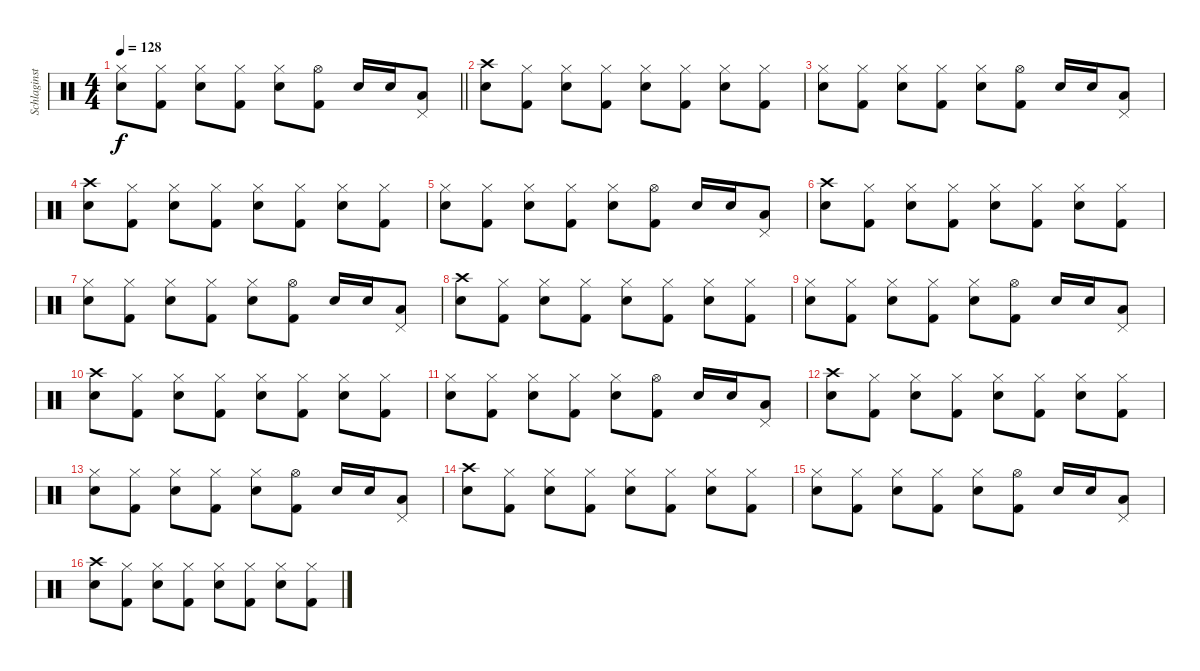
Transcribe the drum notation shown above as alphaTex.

\track ("Schlaginstrumente - Auswahl" "Schlaginst") {instrument percussion}
\staff {score}
\articulation defaults
\ts (4 4)
\tempo 128
\clef neutral
\barLineRight lightlight
\ks c
("Hi-Hat (closed)" "Snare (hit) 2").8{dy f} ("Hi-Hat (closed)" "Kick (hit) 2").8 ("Hi-Hat (closed)" "Snare (hit) 2").8 ("Hi-Hat (closed)" "Kick (hit) 2").8 ("Hi-Hat (closed)" "Snare (hit) 2").8 ("Hi-Hat (open)" "Kick (hit) 2").8 "Snare (hit) 2".16 "Snare (hit) 2".16 ("Pedal Hi-Hat (hit)" "Low Tom (hit)").8 |
("Crash high (hit)" "Snare (hit) 2").8 ("Hi-Hat (closed)" "Kick (hit) 2").8 ("Hi-Hat (closed)" "Snare (hit) 2").8 ("Hi-Hat (closed)" "Kick (hit) 2").8 ("Hi-Hat (closed)" "Snare (hit) 2").8 ("Hi-Hat (closed)" "Kick (hit) 2").8 ("Hi-Hat (closed)" "Snare (hit) 2").8 ("Hi-Hat (closed)" "Kick (hit) 2").8 |
("Hi-Hat (closed)" "Snare (hit) 2").8 ("Hi-Hat (closed)" "Kick (hit) 2").8 ("Hi-Hat (closed)" "Snare (hit) 2").8 ("Hi-Hat (closed)" "Kick (hit) 2").8 ("Hi-Hat (closed)" "Snare (hit) 2").8 ("Hi-Hat (open)" "Kick (hit) 2").8 "Snare (hit) 2".16 "Snare (hit) 2".16 ("Pedal Hi-Hat (hit)" "Low Tom (hit)").8 |
("Crash high (hit)" "Snare (hit) 2").8 ("Hi-Hat (closed)" "Kick (hit) 2").8 ("Hi-Hat (closed)" "Snare (hit) 2").8 ("Hi-Hat (closed)" "Kick (hit) 2").8 ("Hi-Hat (closed)" "Snare (hit) 2").8 ("Hi-Hat (closed)" "Kick (hit) 2").8 ("Hi-Hat (closed)" "Snare (hit) 2").8 ("Hi-Hat (closed)" "Kick (hit) 2").8 |
("Hi-Hat (closed)" "Snare (hit) 2").8 ("Hi-Hat (closed)" "Kick (hit) 2").8 ("Hi-Hat (closed)" "Snare (hit) 2").8 ("Hi-Hat (closed)" "Kick (hit) 2").8 ("Hi-Hat (closed)" "Snare (hit) 2").8 ("Hi-Hat (open)" "Kick (hit) 2").8 "Snare (hit) 2".16 "Snare (hit) 2".16 ("Pedal Hi-Hat (hit)" "Low Tom (hit)").8 |
("Crash high (hit)" "Snare (hit) 2").8 ("Hi-Hat (closed)" "Kick (hit) 2").8 ("Hi-Hat (closed)" "Snare (hit) 2").8 ("Hi-Hat (closed)" "Kick (hit) 2").8 ("Hi-Hat (closed)" "Snare (hit) 2").8 ("Hi-Hat (closed)" "Kick (hit) 2").8 ("Hi-Hat (closed)" "Snare (hit) 2").8 ("Hi-Hat (closed)" "Kick (hit) 2").8 |
("Hi-Hat (closed)" "Snare (hit) 2").8 ("Hi-Hat (closed)" "Kick (hit) 2").8 ("Hi-Hat (closed)" "Snare (hit) 2").8 ("Hi-Hat (closed)" "Kick (hit) 2").8 ("Hi-Hat (closed)" "Snare (hit) 2").8 ("Hi-Hat (open)" "Kick (hit) 2").8 "Snare (hit) 2".16 "Snare (hit) 2".16 ("Pedal Hi-Hat (hit)" "Low Tom (hit)").8 |
("Crash high (hit)" "Snare (hit) 2").8 ("Hi-Hat (closed)" "Kick (hit) 2").8 ("Hi-Hat (closed)" "Snare (hit) 2").8 ("Hi-Hat (closed)" "Kick (hit) 2").8 ("Hi-Hat (closed)" "Snare (hit) 2").8 ("Hi-Hat (closed)" "Kick (hit) 2").8 ("Hi-Hat (closed)" "Snare (hit) 2").8 ("Hi-Hat (closed)" "Kick (hit) 2").8 |
("Hi-Hat (closed)" "Snare (hit) 2").8 ("Hi-Hat (closed)" "Kick (hit) 2").8 ("Hi-Hat (closed)" "Snare (hit) 2").8 ("Hi-Hat (closed)" "Kick (hit) 2").8 ("Hi-Hat (closed)" "Snare (hit) 2").8 ("Hi-Hat (open)" "Kick (hit) 2").8 "Snare (hit) 2".16 "Snare (hit) 2".16 ("Pedal Hi-Hat (hit)" "Low Tom (hit)").8 |
("Crash high (hit)" "Snare (hit) 2").8 ("Hi-Hat (closed)" "Kick (hit) 2").8 ("Hi-Hat (closed)" "Snare (hit) 2").8 ("Hi-Hat (closed)" "Kick (hit) 2").8 ("Hi-Hat (closed)" "Snare (hit) 2").8 ("Hi-Hat (closed)" "Kick (hit) 2").8 ("Hi-Hat (closed)" "Snare (hit) 2").8 ("Hi-Hat (closed)" "Kick (hit) 2").8 |
("Hi-Hat (closed)" "Snare (hit) 2").8 ("Hi-Hat (closed)" "Kick (hit) 2").8 ("Hi-Hat (closed)" "Snare (hit) 2").8 ("Hi-Hat (closed)" "Kick (hit) 2").8 ("Hi-Hat (closed)" "Snare (hit) 2").8 ("Hi-Hat (open)" "Kick (hit) 2").8 "Snare (hit) 2".16 "Snare (hit) 2".16 ("Pedal Hi-Hat (hit)" "Low Tom (hit)").8 |
("Crash high (hit)" "Snare (hit) 2").8 ("Hi-Hat (closed)" "Kick (hit) 2").8 ("Hi-Hat (closed)" "Snare (hit) 2").8 ("Hi-Hat (closed)" "Kick (hit) 2").8 ("Hi-Hat (closed)" "Snare (hit) 2").8 ("Hi-Hat (closed)" "Kick (hit) 2").8 ("Hi-Hat (closed)" "Snare (hit) 2").8 ("Hi-Hat (closed)" "Kick (hit) 2").8 |
("Hi-Hat (closed)" "Snare (hit) 2").8 ("Hi-Hat (closed)" "Kick (hit) 2").8 ("Hi-Hat (closed)" "Snare (hit) 2").8 ("Hi-Hat (closed)" "Kick (hit) 2").8 ("Hi-Hat (closed)" "Snare (hit) 2").8 ("Hi-Hat (open)" "Kick (hit) 2").8 "Snare (hit) 2".16 "Snare (hit) 2".16 ("Pedal Hi-Hat (hit)" "Low Tom (hit)").8 |
("Crash high (hit)" "Snare (hit) 2").8 ("Hi-Hat (closed)" "Kick (hit) 2").8 ("Hi-Hat (closed)" "Snare (hit) 2").8 ("Hi-Hat (closed)" "Kick (hit) 2").8 ("Hi-Hat (closed)" "Snare (hit) 2").8 ("Hi-Hat (closed)" "Kick (hit) 2").8 ("Hi-Hat (closed)" "Snare (hit) 2").8 ("Hi-Hat (closed)" "Kick (hit) 2").8 |
("Hi-Hat (closed)" "Snare (hit) 2").8 ("Hi-Hat (closed)" "Kick (hit) 2").8 ("Hi-Hat (closed)" "Snare (hit) 2").8 ("Hi-Hat (closed)" "Kick (hit) 2").8 ("Hi-Hat (closed)" "Snare (hit) 2").8 ("Hi-Hat (open)" "Kick (hit) 2").8 "Snare (hit) 2".16 "Snare (hit) 2".16 ("Pedal Hi-Hat (hit)" "Low Tom (hit)").8 |
("Crash high (hit)" "Snare (hit) 2").8 ("Hi-Hat (closed)" "Kick (hit) 2").8 ("Hi-Hat (closed)" "Snare (hit) 2").8 ("Hi-Hat (closed)" "Kick (hit) 2").8 ("Hi-Hat (closed)" "Snare (hit) 2").8 ("Hi-Hat (closed)" "Kick (hit) 2").8 ("Hi-Hat (closed)" "Snare (hit) 2").8 ("Hi-Hat (closed)" "Kick (hit) 2").8
